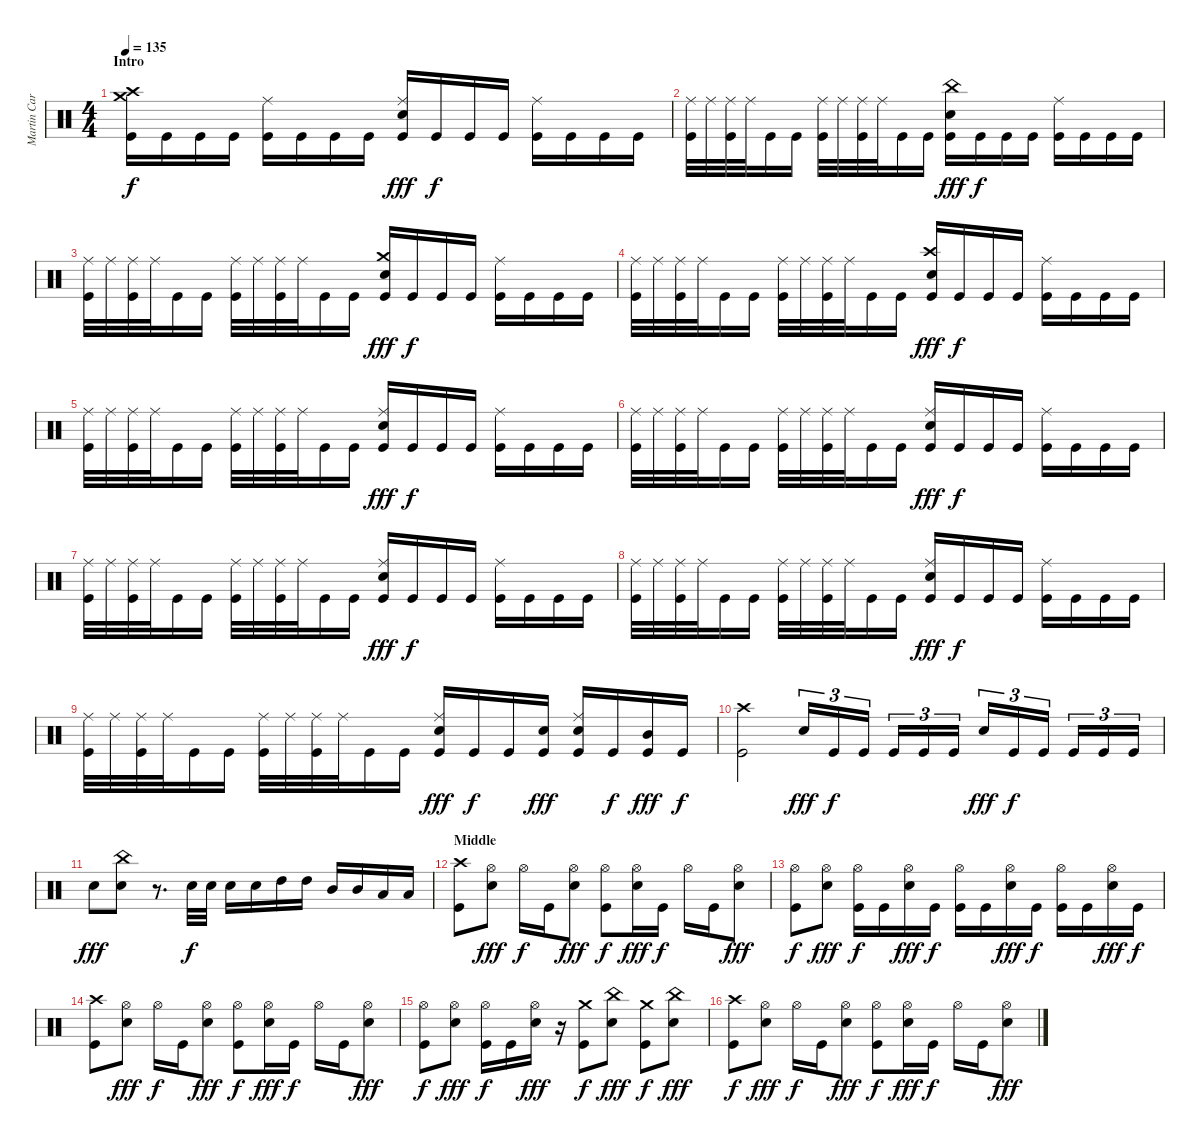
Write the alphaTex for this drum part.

\track ("Martin Carrizo" "Martin Car") {instrument percussion}
\staff {score}
\articulation defaults
\ts (4 4)
\section ("" "Intro")
\tempo 135
\clef neutral
\ks c
("Kick (hit)" "Crash high (hit)" "Crash medium (hit)").16{dy f} "Kick (hit)".16 "Kick (hit)".16 "Kick (hit)".16 ("Kick (hit)" "Ride (middle)").16 "Kick (hit)".16 "Kick (hit)".16 "Kick (hit)".16 ("Kick (hit)" "Snare (hit) 2" "Ride (middle)").16{dy fff} "Kick (hit)".16{dy f} "Kick (hit)".16 "Kick (hit)".16 ("Kick (hit)" "Ride (middle)").16 "Kick (hit)".16 "Kick (hit)".16 "Kick (hit)".16 |
("Kick (hit)" "Ride (middle)").32 "Ride (middle)".32 ("Kick (hit)" "Ride (middle)").32 "Ride (middle)".32 "Kick (hit)".16 "Kick (hit)".16 ("Kick (hit)" "Ride (middle)").32 "Ride (middle)".32 ("Kick (hit)" "Ride (middle)").32 "Ride (middle)".32 "Kick (hit)".16 "Kick (hit)".16 ("Kick (hit)" "Snare (hit) 2" "China (hit)").16{dy fff} "Kick (hit)".16{dy f} "Kick (hit)".16 "Kick (hit)".16 ("Kick (hit)" "Ride (middle)").16 "Kick (hit)".16 "Kick (hit)".16 "Kick (hit)".16 |
("Kick (hit)" "Ride (middle)").32 "Ride (middle)".32 ("Kick (hit)" "Ride (middle)").32 "Ride (middle)".32 "Kick (hit)".16 "Kick (hit)".16 ("Kick (hit)" "Ride (middle)").32 "Ride (middle)".32 ("Kick (hit)" "Ride (middle)").32 "Ride (middle)".32 "Kick (hit)".16 "Kick (hit)".16 ("Kick (hit)" "Snare (hit) 2" "Crash medium (hit)").16{dy fff} "Kick (hit)".16{dy f} "Kick (hit)".16 "Kick (hit)".16 ("Kick (hit)" "Ride (middle)").16 "Kick (hit)".16 "Kick (hit)".16 "Kick (hit)".16 |
("Kick (hit)" "Ride (middle)").32 "Ride (middle)".32 ("Kick (hit)" "Ride (middle)").32 "Ride (middle)".32 "Kick (hit)".16 "Kick (hit)".16 ("Kick (hit)" "Ride (middle)").32 "Ride (middle)".32 ("Kick (hit)" "Ride (middle)").32 "Ride (middle)".32 "Kick (hit)".16 "Kick (hit)".16 ("Kick (hit)" "Snare (hit) 2" "Crash high (hit)").16{dy fff} "Kick (hit)".16{dy f} "Kick (hit)".16 "Kick (hit)".16 ("Kick (hit)" "Ride (middle)").16 "Kick (hit)".16 "Kick (hit)".16 "Kick (hit)".16 |
("Kick (hit)" "Ride (middle)").32 "Ride (middle)".32 ("Kick (hit)" "Ride (middle)").32 "Ride (middle)".32 "Kick (hit)".16 "Kick (hit)".16 ("Kick (hit)" "Ride (middle)").32 "Ride (middle)".32 ("Kick (hit)" "Ride (middle)").32 "Ride (middle)".32 "Kick (hit)".16 "Kick (hit)".16 ("Kick (hit)" "Snare (hit) 2" "Ride (middle)").16{dy fff} "Kick (hit)".16{dy f} "Kick (hit)".16 "Kick (hit)".16 ("Kick (hit)" "Ride (middle)").16 "Kick (hit)".16 "Kick (hit)".16 "Kick (hit)".16 |
("Kick (hit)" "Ride (middle)").32 "Ride (middle)".32 ("Kick (hit)" "Ride (middle)").32 "Ride (middle)".32 "Kick (hit)".16 "Kick (hit)".16 ("Kick (hit)" "Ride (middle)").32 "Ride (middle)".32 ("Kick (hit)" "Ride (middle)").32 "Ride (middle)".32 "Kick (hit)".16 "Kick (hit)".16 ("Kick (hit)" "Snare (hit) 2" "Ride (middle)").16{dy fff} "Kick (hit)".16{dy f} "Kick (hit)".16 "Kick (hit)".16 ("Kick (hit)" "Ride (middle)").16 "Kick (hit)".16 "Kick (hit)".16 "Kick (hit)".16 |
("Kick (hit)" "Ride (middle)").32 "Ride (middle)".32 ("Kick (hit)" "Ride (middle)").32 "Ride (middle)".32 "Kick (hit)".16 "Kick (hit)".16 ("Kick (hit)" "Ride (middle)").32 "Ride (middle)".32 ("Kick (hit)" "Ride (middle)").32 "Ride (middle)".32 "Kick (hit)".16 "Kick (hit)".16 ("Kick (hit)" "Snare (hit) 2" "Ride (middle)").16{dy fff} "Kick (hit)".16{dy f} "Kick (hit)".16 "Kick (hit)".16 ("Kick (hit)" "Ride (middle)").16 "Kick (hit)".16 "Kick (hit)".16 "Kick (hit)".16 |
("Kick (hit)" "Ride (middle)").32 "Ride (middle)".32 ("Kick (hit)" "Ride (middle)").32 "Ride (middle)".32 "Kick (hit)".16 "Kick (hit)".16 ("Kick (hit)" "Ride (middle)").32 "Ride (middle)".32 ("Kick (hit)" "Ride (middle)").32 "Ride (middle)".32 "Kick (hit)".16 "Kick (hit)".16 ("Kick (hit)" "Snare (hit) 2" "Ride (middle)").16{dy fff} "Kick (hit)".16{dy f} "Kick (hit)".16 "Kick (hit)".16 ("Kick (hit)" "Ride (middle)").16 "Kick (hit)".16 "Kick (hit)".16 "Kick (hit)".16 |
("Kick (hit)" "Ride (middle)").32 "Ride (middle)".32 ("Kick (hit)" "Ride (middle)").32 "Ride (middle)".32 "Kick (hit)".16 "Kick (hit)".16 ("Kick (hit)" "Ride (middle)").32 "Ride (middle)".32 ("Kick (hit)" "Ride (middle)").32 "Ride (middle)".32 "Kick (hit)".16 "Kick (hit)".16 ("Kick (hit)" "Snare (hit) 2" "Ride (middle)").16{dy fff} "Kick (hit)".16{dy f} "Kick (hit)".16 ("Kick (hit)" "Snare (hit) 2").16{dy fff} ("Kick (hit)" "Snare (hit) 2" "Ride (middle)").16 "Kick (hit)".16{dy f} ("Kick (hit)" "Mid Tom (hit)").16{dy fff} "Kick (hit)".16{dy f} |
("Kick (hit)" "Crash high (hit)").2 "Snare (hit) 2".16{tu (3 2) dy fff} "Kick (hit)".16{tu (3 2) dy f} "Kick (hit)".16{tu (3 2)} "Kick (hit)".16{tu (3 2)} "Kick (hit)".16{tu (3 2)} "Kick (hit)".16{tu (3 2)} "Snare (hit) 2".16{tu (3 2) dy fff} "Kick (hit)".16{tu (3 2) dy f} "Kick (hit)".16{tu (3 2)} "Kick (hit)".16{tu (3 2)} "Kick (hit)".16{tu (3 2)} "Kick (hit)".16{tu (3 2)} |
"Snare (hit) 2".8{dy fff} ("Snare (hit) 2" "China (hit)").8 r.8{d} "Snare (hit) 2".32{dy f} "Snare (hit) 2".32 "Snare (hit) 2".16 "Snare (hit) 2".16 "High Tom (hit)".16 "High Tom (hit)".16 "Mid Tom (hit)".16 "Mid Tom (hit)".16 "Low Tom (hit)".16 "Low Tom (hit)".16 |
\section ("" "Middle")
("Kick (hit)" "Crash high (hit)").8 ("Snare (hit) 2" "Hi-Hat (open)").8{dy fff} "Hi-Hat (open)".16{dy f} "Kick (hit)".16 ("Snare (hit) 2" "Hi-Hat (open)").8{dy fff} ("Kick (hit)" "Hi-Hat (open)").8{dy f} ("Snare (hit) 2" "Hi-Hat (open)").16{dy fff} "Kick (hit)".16{dy f} "Hi-Hat (open)".16 "Kick (hit)".16 ("Snare (hit) 2" "Hi-Hat (open)").8{dy fff} |
("Kick (hit)" "Hi-Hat (open)").8{dy f} ("Snare (hit) 2" "Hi-Hat (open)").8{dy fff} ("Kick (hit)" "Hi-Hat (open)").16{dy f} "Kick (hit)".16 ("Snare (hit) 2" "Hi-Hat (open)").16{dy fff} "Kick (hit)".16{dy f} ("Kick (hit)" "Hi-Hat (open)").16 "Kick (hit)".16 ("Snare (hit) 2" "Hi-Hat (open)").16{dy fff} "Kick (hit)".16{dy f} ("Kick (hit)" "Hi-Hat (open)").16 "Kick (hit)".16 ("Snare (hit) 2" "Hi-Hat (open)").16{dy fff} "Kick (hit)".16{dy f} |
("Kick (hit)" "Crash high (hit)").8 ("Snare (hit) 2" "Hi-Hat (open)").8{dy fff} "Hi-Hat (open)".16{dy f} "Kick (hit)".16 ("Snare (hit) 2" "Hi-Hat (open)").8{dy fff} ("Kick (hit)" "Hi-Hat (open)").8{dy f} ("Snare (hit) 2" "Hi-Hat (open)").16{dy fff} "Kick (hit)".16{dy f} "Hi-Hat (open)".16 "Kick (hit)".16 ("Snare (hit) 2" "Hi-Hat (open)").8{dy fff} |
("Kick (hit)" "Hi-Hat (open)").8{dy f} ("Snare (hit) 2" "Hi-Hat (open)").8{dy fff} ("Kick (hit)" "Hi-Hat (open)").16{dy f} "Kick (hit)".16 ("Snare (hit) 2" "Hi-Hat (open)").16{dy fff} r.16 ("Kick (hit)" "Crash medium (hit)").8{dy f} ("Snare (hit) 2" "China (hit)").8{dy fff} ("Kick (hit)" "Crash medium (hit)").8{dy f} ("Snare (hit) 2" "China (hit)").8{dy fff} |
("Kick (hit)" "Crash high (hit)").8{dy f} ("Snare (hit) 2" "Hi-Hat (open)").8{dy fff} "Hi-Hat (open)".16{dy f} "Kick (hit)".16 ("Snare (hit) 2" "Hi-Hat (open)").8{dy fff} ("Kick (hit)" "Hi-Hat (open)").8{dy f} ("Snare (hit) 2" "Hi-Hat (open)").16{dy fff} "Kick (hit)".16{dy f} "Hi-Hat (open)".16 "Kick (hit)".16 ("Snare (hit) 2" "Hi-Hat (open)").8{dy fff}
